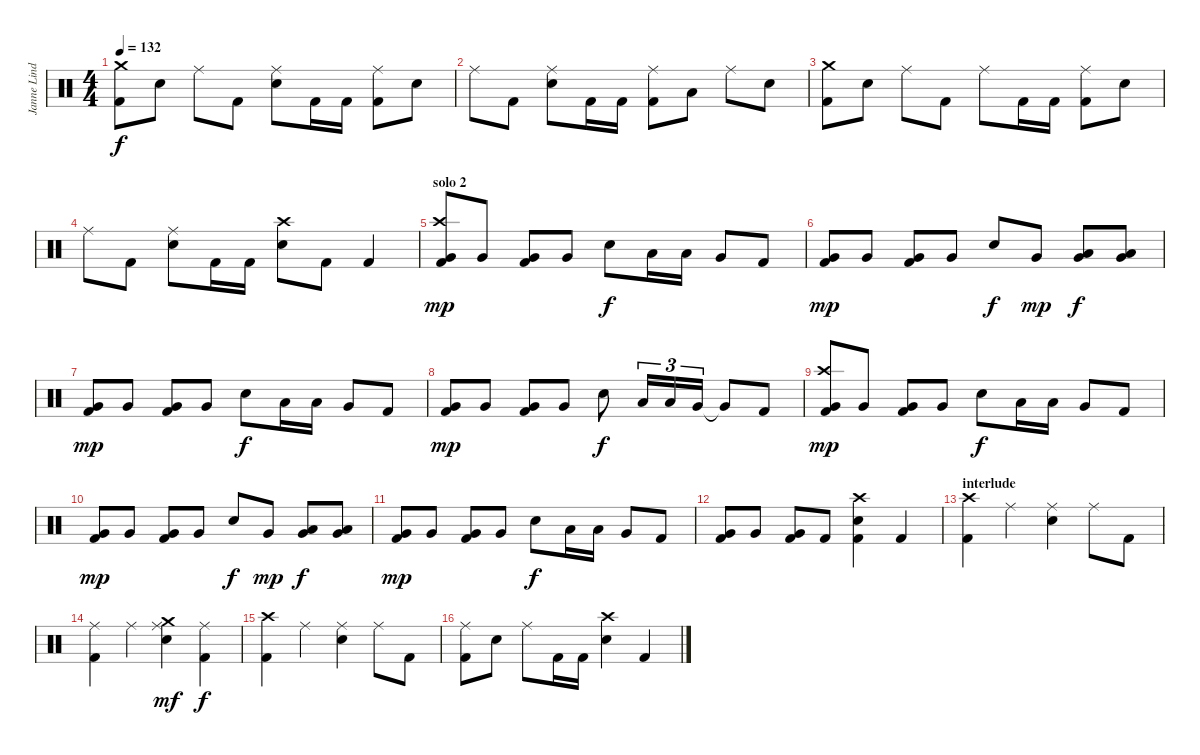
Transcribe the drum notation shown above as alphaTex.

\track ("Janne Lindh" "Janne Lind") {instrument percussion}
\staff {score}
\articulation defaults
\ts (4 4)
\tempo 132
\clef neutral
\ks c
("Kick (hit) 2" "Crash medium (hit)").8{dy f} "Snare (hit) 2".8 "Ride (middle)".8 "Kick (hit) 2".8 ("Ride (middle)" "Snare (hit) 2").8 "Kick (hit) 2".16 "Kick (hit) 2".16 ("Kick (hit) 2" "Ride (middle)").8 "Snare (hit) 2".8 |
"Ride (middle)".8 "Kick (hit) 2".8 ("Ride (middle)" "Snare (hit) 2").8 "Kick (hit) 2".16 "Kick (hit) 2".16 ("Kick (hit) 2" "Ride (middle)").8 "Low Tom (hit)".8 "Ride (middle)".8 "Snare (hit) 2".8 |
("Kick (hit) 2" "Crash medium (hit)").8 "Snare (hit) 2".8 "Ride (middle)".8 "Kick (hit) 2".8 "Ride (middle)".8 "Kick (hit) 2".16 "Kick (hit) 2".16 ("Kick (hit) 2" "Ride (middle)").8 "Snare (hit) 2".8 |
"Ride (middle)".8 "Kick (hit) 2".8 ("Ride (middle)" "Snare (hit) 2").8 "Kick (hit) 2".16 "Kick (hit) 2".16 ("Crash high (hit)" "Snare (hit) 2").8 "Kick (hit) 2".8 "Kick (hit) 2".4 |
\section ("" "solo 2")
("Kick (hit) 2" "Crash high (hit)" "Very Low Tom (hit)").8{dy mp} "Very Low Tom (hit)".8 ("Kick (hit) 2" "Very Low Tom (hit)").8 "Very Low Tom (hit)".8 "Snare (hit) 2".8{dy f} "Low Tom (hit)".16 "Low Tom (hit)".16 "Very Low Tom (hit)".8 "Kick (hit) 2".8 |
("Kick (hit) 2" "Very Low Tom (hit)").8{dy mp} "Very Low Tom (hit)".8 ("Kick (hit) 2" "Very Low Tom (hit)").8 "Very Low Tom (hit)".8 "Snare (hit) 2".8{dy f} "Very Low Tom (hit)".8{dy mp} ("Very Low Tom (hit)" "Low Tom (hit)").8{dy f} ("Very Low Tom (hit)" "Low Tom (hit)").8 |
("Kick (hit) 2" "Very Low Tom (hit)").8{dy mp} "Very Low Tom (hit)".8 ("Kick (hit) 2" "Very Low Tom (hit)").8 "Very Low Tom (hit)".8 "Snare (hit) 2".8{dy f} "Low Tom (hit)".16 "Low Tom (hit)".16 "Very Low Tom (hit)".8 "Kick (hit) 2".8 |
("Kick (hit) 2" "Very Low Tom (hit)").8{dy mp} "Very Low Tom (hit)".8 ("Kick (hit) 2" "Very Low Tom (hit)").8 "Very Low Tom (hit)".8 "Snare (hit) 2".8{dy f} "Low Tom (hit)".16{tu (3 2)} "Low Tom (hit)".16{tu (3 2)} "Very Low Tom (hit)".16{tu (3 2)} "Very Low Tom (hit)"{t}.8 "Kick (hit) 2".8 |
("Kick (hit) 2" "Crash high (hit)" "Very Low Tom (hit)").8{dy mp} "Very Low Tom (hit)".8 ("Kick (hit) 2" "Very Low Tom (hit)").8 "Very Low Tom (hit)".8 "Snare (hit) 2".8{dy f} "Low Tom (hit)".16 "Low Tom (hit)".16 "Very Low Tom (hit)".8 "Kick (hit) 2".8 |
("Kick (hit) 2" "Very Low Tom (hit)").8{dy mp} "Very Low Tom (hit)".8 ("Kick (hit) 2" "Very Low Tom (hit)").8 "Very Low Tom (hit)".8 "Snare (hit) 2".8{dy f} "Very Low Tom (hit)".8{dy mp} ("Very Low Tom (hit)" "Low Tom (hit)").8{dy f} ("Very Low Tom (hit)" "Low Tom (hit)").8 |
("Kick (hit) 2" "Very Low Tom (hit)").8{dy mp} "Very Low Tom (hit)".8 ("Kick (hit) 2" "Very Low Tom (hit)").8 "Very Low Tom (hit)".8 "Snare (hit) 2".8{dy f} "Low Tom (hit)".16 "Low Tom (hit)".16 "Very Low Tom (hit)".8 "Kick (hit) 2".8 |
("Kick (hit) 2" "Very Low Tom (hit)").8 "Very Low Tom (hit)".8 ("Kick (hit) 2" "Very Low Tom (hit)").8 "Kick (hit) 2".8 ("Kick (hit) 2" "Crash high (hit)" "Snare (hit) 2").4 "Kick (hit) 2".4 |
\section ("" "interlude")
("Kick (hit) 2" "Crash high (hit)").4 "Ride (middle)".4 ("Ride (middle)" "Snare (hit) 2").4 "Ride (middle)".8 "Kick (hit) 2".8 |
("Kick (hit) 2" "Ride (middle)").4 "Ride (middle)".4 ("Ride (middle)" "Crash medium (hit)" "Snare (hit) 2").4{dy mf} ("Kick (hit) 2" "Ride (middle)").4{dy f} |
("Kick (hit) 2" "Crash high (hit)").4 "Ride (middle)".4 ("Ride (middle)" "Snare (hit) 2").4 "Ride (middle)".8 "Kick (hit) 2".8 |
("Kick (hit) 2" "Ride (middle)").8 "Snare (hit) 2".8 "Ride (middle)".8 "Kick (hit) 2".16 "Kick (hit) 2".16 ("Crash high (hit)" "Snare (hit) 2").4 "Kick (hit) 2".4
